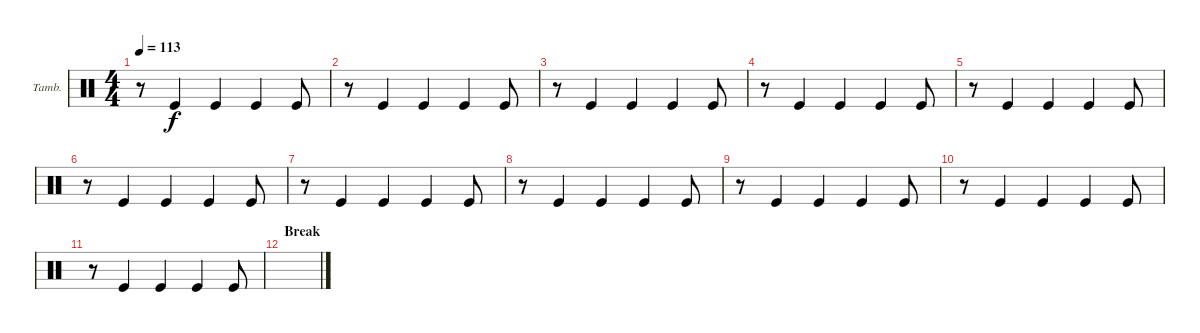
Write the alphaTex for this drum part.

\defaultSystemsLayout 4
\bracketExtendMode groupsimilarinstruments
\firstSystemTrackNameOrientation horizontal
\otherSystemsTrackNameOrientation horizontal
\track ("Tambourine" "Tamb.") {instrument percussion}
\staff {score}
\articulation defaults
\ts (4 4)
\tempo 113
\clef neutral
\scale
0.333333
\ks c
r.8{dy f} "Kick (hit)".4 "Kick (hit)".4 "Kick (hit)".4 "Kick (hit)".8 |
\scale
0.333333 r.8 "Kick (hit)".4 "Kick (hit)".4 "Kick (hit)".4 "Kick (hit)".8 |
\scale
0.333333 r.8 "Kick (hit)".4 "Kick (hit)".4 "Kick (hit)".4 "Kick (hit)".8 |
\scale
0.333333 r.8 "Kick (hit)".4 "Kick (hit)".4 "Kick (hit)".4 "Kick (hit)".8 |
\scale
0.333333 r.8 "Kick (hit)".4 "Kick (hit)".4 "Kick (hit)".4 "Kick (hit)".8 |
\scale
0.333333 r.8 "Kick (hit)".4 "Kick (hit)".4 "Kick (hit)".4 "Kick (hit)".8 |
\scale
0.333333 r.8 "Kick (hit)".4 "Kick (hit)".4 "Kick (hit)".4 "Kick (hit)".8 |
\scale
0.333333 r.8 "Kick (hit)".4 "Kick (hit)".4 "Kick (hit)".4 "Kick (hit)".8 |
\scale
0.333333 r.8 "Kick (hit)".4 "Kick (hit)".4 "Kick (hit)".4 "Kick (hit)".8 |
\scale
0.333333 r.8 "Kick (hit)".4 "Kick (hit)".4 "Kick (hit)".4 "Kick (hit)".8 |
\scale
0.333333 r.8 "Kick (hit)".4 "Kick (hit)".4 "Kick (hit)".4 "Kick (hit)".8 |
\section ("" "Break")
\scale
0.333333 |
\scale
0.333333
